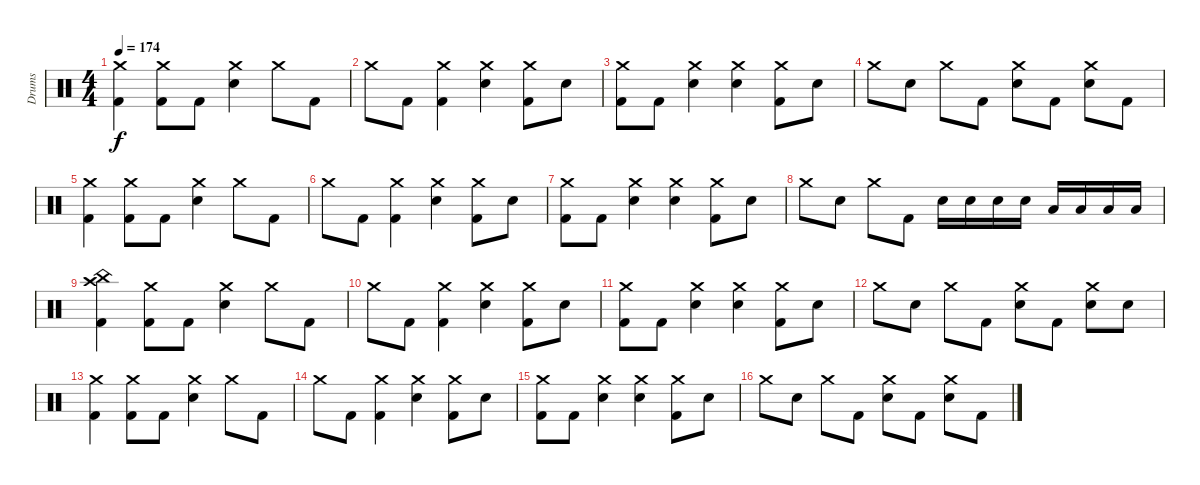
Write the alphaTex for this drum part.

\track ("Drums" "Drums") {instrument percussion}
\staff {score}
\articulation defaults
\ts (4 4)
\tempo 174
\clef neutral
\ks c
("Crash medium (hit)" "Kick (hit) 2").4{dy f} ("Crash medium (hit)" "Kick (hit) 2").8 "Kick (hit) 2".8 ("Crash medium (hit)" "Electric Snare (hit)").4 "Crash medium (hit)".8 "Kick (hit) 2".8 |
"Crash medium (hit)".8 "Kick (hit) 2".8 ("Crash medium (hit)" "Kick (hit) 2").4 ("Crash medium (hit)" "Electric Snare (hit)").4 ("Crash medium (hit)" "Kick (hit) 2").8 "Electric Snare (hit)".8 |
("Crash medium (hit)" "Kick (hit) 2").8 "Kick (hit) 2".8 ("Crash medium (hit)" "Electric Snare (hit)").4 ("Crash medium (hit)" "Electric Snare (hit)").4 ("Crash medium (hit)" "Kick (hit) 2").8 "Electric Snare (hit)".8 |
"Crash medium (hit)".8 "Electric Snare (hit)".8 "Crash medium (hit)".8 "Kick (hit) 2".8 ("Crash medium (hit)" "Electric Snare (hit)").8 "Kick (hit) 2".8 ("Crash medium (hit)" "Electric Snare (hit)").8 "Kick (hit) 2".8 |
("Crash medium (hit)" "Kick (hit) 2").4 ("Crash medium (hit)" "Kick (hit) 2").8 "Kick (hit) 2".8 ("Crash medium (hit)" "Electric Snare (hit)").4 "Crash medium (hit)".8 "Kick (hit) 2".8 |
"Crash medium (hit)".8 "Kick (hit) 2".8 ("Crash medium (hit)" "Kick (hit) 2").4 ("Crash medium (hit)" "Electric Snare (hit)").4 ("Crash medium (hit)" "Kick (hit) 2").8 "Electric Snare (hit)".8 |
("Crash medium (hit)" "Kick (hit) 2").8 "Kick (hit) 2".8 ("Crash medium (hit)" "Electric Snare (hit)").4 ("Crash medium (hit)" "Electric Snare (hit)").4 ("Crash medium (hit)" "Kick (hit) 2").8 "Electric Snare (hit)".8 |
"Crash medium (hit)".8 "Electric Snare (hit)".8 "Crash medium (hit)".8 "Kick (hit) 2".8 "Electric Snare (hit)".16 "Electric Snare (hit)".16 "Electric Snare (hit)".16 "Electric Snare (hit)".16 "Low Tom (hit)".16 "Low Tom (hit)".16 "Low Tom (hit)".16 "Low Tom (hit)".16 |
("China (hit)" "Crash high (hit)" "Kick (hit) 2").4 ("Crash medium (hit)" "Kick (hit) 2").8 "Kick (hit) 2".8 ("Crash medium (hit)" "Electric Snare (hit)").4 "Crash medium (hit)".8 "Kick (hit) 2".8 |
"Crash medium (hit)".8 "Kick (hit) 2".8 ("Crash medium (hit)" "Kick (hit) 2").4 ("Crash medium (hit)" "Electric Snare (hit)").4 ("Crash medium (hit)" "Kick (hit) 2").8 "Electric Snare (hit)".8 |
("Crash medium (hit)" "Kick (hit) 2").8 "Kick (hit) 2".8 ("Crash medium (hit)" "Electric Snare (hit)").4 ("Crash medium (hit)" "Electric Snare (hit)").4 ("Crash medium (hit)" "Kick (hit) 2").8 "Electric Snare (hit)".8 |
"Crash medium (hit)".8 "Electric Snare (hit)".8 "Crash medium (hit)".8 "Kick (hit) 2".8 ("Crash medium (hit)" "Electric Snare (hit)").8 "Kick (hit) 2".8 ("Crash medium (hit)" "Electric Snare (hit)").8 "Electric Snare (hit)".8 |
("Crash medium (hit)" "Kick (hit) 2").4 ("Crash medium (hit)" "Kick (hit) 2").8 "Kick (hit) 2".8 ("Crash medium (hit)" "Electric Snare (hit)").4 "Crash medium (hit)".8 "Kick (hit) 2".8 |
"Crash medium (hit)".8 "Kick (hit) 2".8 ("Crash medium (hit)" "Kick (hit) 2").4 ("Crash medium (hit)" "Electric Snare (hit)").4 ("Crash medium (hit)" "Kick (hit) 2").8 "Electric Snare (hit)".8 |
("Crash medium (hit)" "Kick (hit) 2").8 "Kick (hit) 2".8 ("Crash medium (hit)" "Electric Snare (hit)").4 ("Crash medium (hit)" "Electric Snare (hit)").4 ("Crash medium (hit)" "Kick (hit) 2").8 "Electric Snare (hit)".8 |
"Crash medium (hit)".8 "Electric Snare (hit)".8 "Crash medium (hit)".8 "Kick (hit) 2".8 ("Crash medium (hit)" "Electric Snare (hit)").8 "Kick (hit) 2".8 ("Crash medium (hit)" "Electric Snare (hit)").8 "Kick (hit) 2".8
